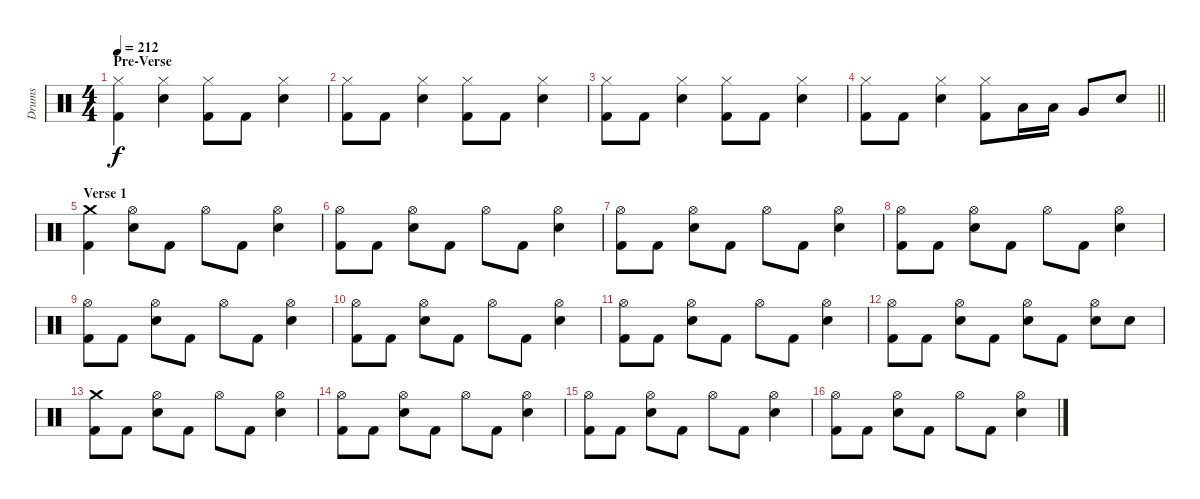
\track ("Drums" "Drums") {instrument percussion}
\staff {score}
\articulation defaults
\ts (4 4)
\section ("" "Pre-Verse")
\tempo 212
\clef neutral
\ks c
("Hi-Hat (closed)" "Kick (hit) 2").4{dy f} ("Hi-Hat (closed)" "Electric Snare (hit)").4 ("Hi-Hat (closed)" "Kick (hit) 2").8 "Kick (hit) 2".8 ("Hi-Hat (closed)" "Electric Snare (hit)").4 |
("Hi-Hat (closed)" "Kick (hit) 2").8 "Kick (hit) 2".8 ("Hi-Hat (closed)" "Electric Snare (hit)").4 ("Hi-Hat (closed)" "Kick (hit) 2").8 "Kick (hit) 2".8 ("Hi-Hat (closed)" "Electric Snare (hit)").4 |
("Hi-Hat (closed)" "Kick (hit) 2").8 "Kick (hit) 2".8 ("Hi-Hat (closed)" "Electric Snare (hit)").4 ("Hi-Hat (closed)" "Kick (hit) 2").8 "Kick (hit) 2".8 ("Hi-Hat (closed)" "Electric Snare (hit)").4 |
\barLineRight lightlight
("Hi-Hat (closed)" "Kick (hit) 2").8 "Kick (hit) 2".8 ("Hi-Hat (closed)" "Electric Snare (hit)").4 ("Hi-Hat (closed)" "Kick (hit) 2").8 "Low Tom (hit)".16 "Low Tom (hit)".16 "Very Low Tom (hit)".8 "Electric Snare (hit)".8 |
\section ("" "Verse 1")
("Crash medium (hit)" "Kick (hit) 2").4 ("Hi-Hat (open)" "Electric Snare (hit)").8 "Kick (hit) 2".8 "Hi-Hat (open)".8 "Kick (hit) 2".8 ("Hi-Hat (open)" "Electric Snare (hit)").4 |
("Hi-Hat (open)" "Kick (hit) 2").8 "Kick (hit) 2".8 ("Hi-Hat (open)" "Electric Snare (hit)").8 "Kick (hit) 2".8 "Hi-Hat (open)".8 "Kick (hit) 2".8 ("Hi-Hat (open)" "Electric Snare (hit)").4 |
("Hi-Hat (open)" "Kick (hit) 2").8 "Kick (hit) 2".8 ("Hi-Hat (open)" "Electric Snare (hit)").8 "Kick (hit) 2".8 "Hi-Hat (open)".8 "Kick (hit) 2".8 ("Hi-Hat (open)" "Electric Snare (hit)").4 |
("Hi-Hat (open)" "Kick (hit) 2").8 "Kick (hit) 2".8 ("Hi-Hat (open)" "Electric Snare (hit)").8 "Kick (hit) 2".8 "Hi-Hat (open)".8 "Kick (hit) 2".8 ("Hi-Hat (open)" "Electric Snare (hit)").4 |
("Hi-Hat (open)" "Kick (hit) 2").8 "Kick (hit) 2".8 ("Hi-Hat (open)" "Electric Snare (hit)").8 "Kick (hit) 2".8 "Hi-Hat (open)".8 "Kick (hit) 2".8 ("Hi-Hat (open)" "Electric Snare (hit)").4 |
("Hi-Hat (open)" "Kick (hit) 2").8 "Kick (hit) 2".8 ("Hi-Hat (open)" "Electric Snare (hit)").8 "Kick (hit) 2".8 "Hi-Hat (open)".8 "Kick (hit) 2".8 ("Hi-Hat (open)" "Electric Snare (hit)").4 |
("Hi-Hat (open)" "Kick (hit) 2").8 "Kick (hit) 2".8 ("Hi-Hat (open)" "Electric Snare (hit)").8 "Kick (hit) 2".8 "Hi-Hat (open)".8 "Kick (hit) 2".8 ("Hi-Hat (open)" "Electric Snare (hit)").4 |
("Hi-Hat (open)" "Kick (hit) 2").8 "Kick (hit) 2".8 ("Hi-Hat (open)" "Electric Snare (hit)").8 "Kick (hit) 2".8 ("Hi-Hat (open)" "Electric Snare (hit)").8 "Kick (hit) 2".8 ("Hi-Hat (open)" "Electric Snare (hit)").8 "Electric Snare (hit)".8 |
("Crash medium (hit)" "Kick (hit) 2").8 "Kick (hit) 2".8 ("Hi-Hat (open)" "Electric Snare (hit)").8 "Kick (hit) 2".8 "Hi-Hat (open)".8 "Kick (hit) 2".8 ("Hi-Hat (open)" "Electric Snare (hit)").4 |
("Hi-Hat (open)" "Kick (hit) 2").8 "Kick (hit) 2".8 ("Hi-Hat (open)" "Electric Snare (hit)").8 "Kick (hit) 2".8 "Hi-Hat (open)".8 "Kick (hit) 2".8 ("Hi-Hat (open)" "Electric Snare (hit)").4 |
("Hi-Hat (open)" "Kick (hit) 2").8 "Kick (hit) 2".8 ("Hi-Hat (open)" "Electric Snare (hit)").8 "Kick (hit) 2".8 "Hi-Hat (open)".8 "Kick (hit) 2".8 ("Hi-Hat (open)" "Electric Snare (hit)").4 |
("Hi-Hat (open)" "Kick (hit) 2").8 "Kick (hit) 2".8 ("Hi-Hat (open)" "Electric Snare (hit)").8 "Kick (hit) 2".8 "Hi-Hat (open)".8 "Kick (hit) 2".8 ("Hi-Hat (open)" "Electric Snare (hit)").4
